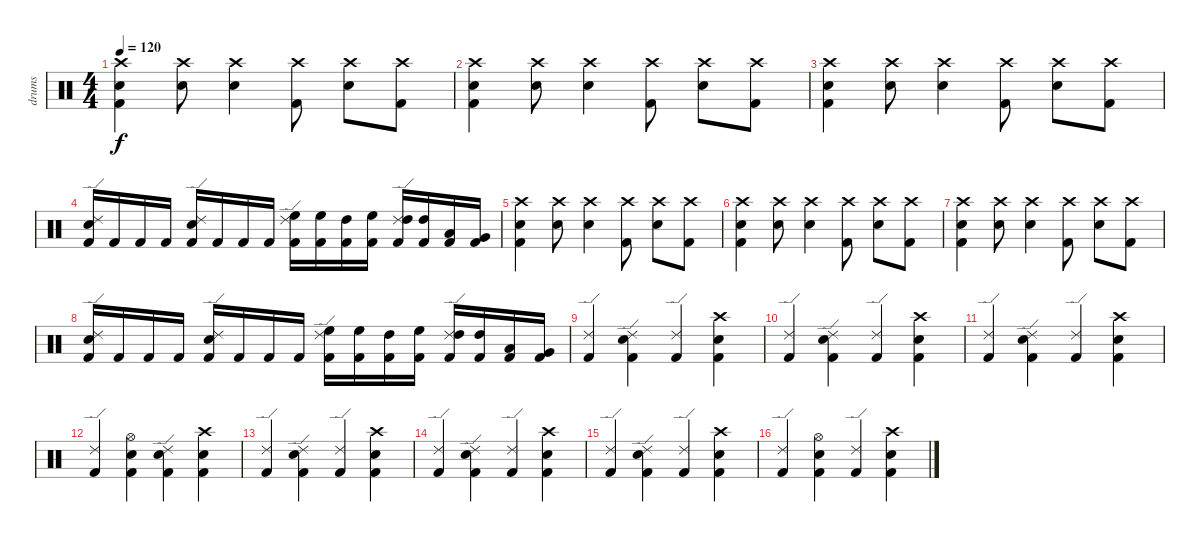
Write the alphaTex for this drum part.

\track ("drums" "drums") {instrument percussion}
\staff {score}
\articulation defaults
\ts (4 4)
\tempo 120
\clef neutral
\ks c
("Crash high (hit)" "Electric Snare (hit)" "Kick (hit) 2").4{dy f} ("Crash high (hit)" "Electric Snare (hit)").8 ("Crash high (hit)" "Electric Snare (hit)").4 ("Crash high (hit)" "Kick (hit) 2").8 ("Crash high (hit)" "Electric Snare (hit)").8 ("Crash high (hit)" "Kick (hit) 2").8 |
("Crash high (hit)" "Electric Snare (hit)" "Kick (hit) 2").4 ("Crash high (hit)" "Electric Snare (hit)").8 ("Crash high (hit)" "Electric Snare (hit)").4 ("Crash high (hit)" "Kick (hit) 2").8 ("Crash high (hit)" "Electric Snare (hit)").8 ("Crash high (hit)" "Kick (hit) 2").8 |
("Crash high (hit)" "Electric Snare (hit)" "Kick (hit) 2").4 ("Crash high (hit)" "Electric Snare (hit)").8 ("Crash high (hit)" "Electric Snare (hit)").4 ("Crash high (hit)" "Kick (hit) 2").8 ("Crash high (hit)" "Electric Snare (hit)").8 ("Crash high (hit)" "Kick (hit) 2").8 |
("Ride (edge) 2" "Electric Snare (hit)" "Kick (hit) 2").16 "Kick (hit) 2".16 "Kick (hit) 2".16 "Kick (hit) 2".16 ("Ride (edge) 2" "Electric Snare (hit)" "Kick (hit) 2").16 "Kick (hit) 2".16 "Kick (hit) 2".16 "Kick (hit) 2".16 ("Ride (edge) 2" "High Floor Tom (hit)" "Kick (hit) 2").16 ("High Floor Tom (hit)" "Kick (hit) 2").16 ("High Tom (hit)" "Kick (hit) 2").16 ("High Floor Tom (hit)" "Kick (hit) 2").16 ("Ride (edge) 2" "High Tom (hit)" "Kick (hit) 2").16 ("High Tom (hit)" "Kick (hit) 2").16 ("Low Tom (hit)" "Kick (hit) 2").16 ("Very Low Tom (hit)" "Kick (hit) 2").16 |
("Crash high (hit)" "Electric Snare (hit)" "Kick (hit) 2").4 ("Crash high (hit)" "Electric Snare (hit)").8 ("Crash high (hit)" "Electric Snare (hit)").4 ("Crash high (hit)" "Kick (hit) 2").8 ("Crash high (hit)" "Electric Snare (hit)").8 ("Crash high (hit)" "Kick (hit) 2").8 |
("Crash high (hit)" "Electric Snare (hit)" "Kick (hit) 2").4 ("Crash high (hit)" "Electric Snare (hit)").8 ("Crash high (hit)" "Electric Snare (hit)").4 ("Crash high (hit)" "Kick (hit) 2").8 ("Crash high (hit)" "Electric Snare (hit)").8 ("Crash high (hit)" "Kick (hit) 2").8 |
("Crash high (hit)" "Electric Snare (hit)" "Kick (hit) 2").4 ("Crash high (hit)" "Electric Snare (hit)").8 ("Crash high (hit)" "Electric Snare (hit)").4 ("Crash high (hit)" "Kick (hit) 2").8 ("Crash high (hit)" "Electric Snare (hit)").8 ("Crash high (hit)" "Kick (hit) 2").8 |
("Ride (edge) 2" "Electric Snare (hit)" "Kick (hit) 2").16 "Kick (hit) 2".16 "Kick (hit) 2".16 "Kick (hit) 2".16 ("Ride (edge) 2" "Electric Snare (hit)" "Kick (hit) 2").16 "Kick (hit) 2".16 "Kick (hit) 2".16 "Kick (hit) 2".16 ("Ride (edge) 2" "High Floor Tom (hit)" "Kick (hit) 2").16 ("High Floor Tom (hit)" "Kick (hit) 2").16 ("High Tom (hit)" "Kick (hit) 2").16 ("High Floor Tom (hit)" "Kick (hit) 2").16 ("Ride (edge) 2" "High Tom (hit)" "Kick (hit) 2").16 ("High Tom (hit)" "Kick (hit) 2").16 ("Low Tom (hit)" "Kick (hit) 2").16 ("Very Low Tom (hit)" "Kick (hit) 2").16 |
("Ride (edge) 2" "Kick (hit) 2").4 ("Ride (edge) 2" "Electric Snare (hit)" "Kick (hit) 2").4 ("Ride (edge) 2" "Kick (hit) 2").4 ("Crash high (hit)" "Electric Snare (hit)" "Kick (hit) 2").4 |
("Ride (edge) 2" "Kick (hit) 2").4 ("Ride (edge) 2" "Electric Snare (hit)" "Kick (hit) 2").4 ("Ride (edge) 2" "Kick (hit) 2").4 ("Crash high (hit)" "Electric Snare (hit)" "Kick (hit) 2").4 |
("Ride (edge) 2" "Kick (hit) 2").4 ("Ride (edge) 2" "Electric Snare (hit)" "Kick (hit) 2").4 ("Ride (edge) 2" "Kick (hit) 2").4 ("Crash high (hit)" "Electric Snare (hit)" "Kick (hit) 2").4 |
("Ride (edge) 2" "Kick (hit) 2").4 ("Hi-Hat (open)" "Electric Snare (hit)" "Kick (hit) 2").4 ("Ride (edge) 2" "Electric Snare (hit)" "Kick (hit) 2").4 ("Crash high (hit)" "Electric Snare (hit)" "Kick (hit) 2").4 |
("Ride (edge) 2" "Kick (hit) 2").4 ("Ride (edge) 2" "Electric Snare (hit)" "Kick (hit) 2").4 ("Ride (edge) 2" "Kick (hit) 2").4 ("Crash high (hit)" "Electric Snare (hit)" "Kick (hit) 2").4 |
("Ride (edge) 2" "Kick (hit) 2").4 ("Ride (edge) 2" "Electric Snare (hit)" "Kick (hit) 2").4 ("Ride (edge) 2" "Kick (hit) 2").4 ("Crash high (hit)" "Electric Snare (hit)" "Kick (hit) 2").4 |
("Ride (edge) 2" "Kick (hit) 2").4 ("Ride (edge) 2" "Electric Snare (hit)" "Kick (hit) 2").4 ("Ride (edge) 2" "Kick (hit) 2").4 ("Crash high (hit)" "Electric Snare (hit)" "Kick (hit) 2").4 |
("Ride (edge) 2" "Kick (hit) 2").4 ("Hi-Hat (open)" "Electric Snare (hit)" "Kick (hit) 2").4 ("Ride (edge) 2" "Kick (hit) 2").4 ("Crash high (hit)" "Electric Snare (hit)" "Kick (hit) 2").4
